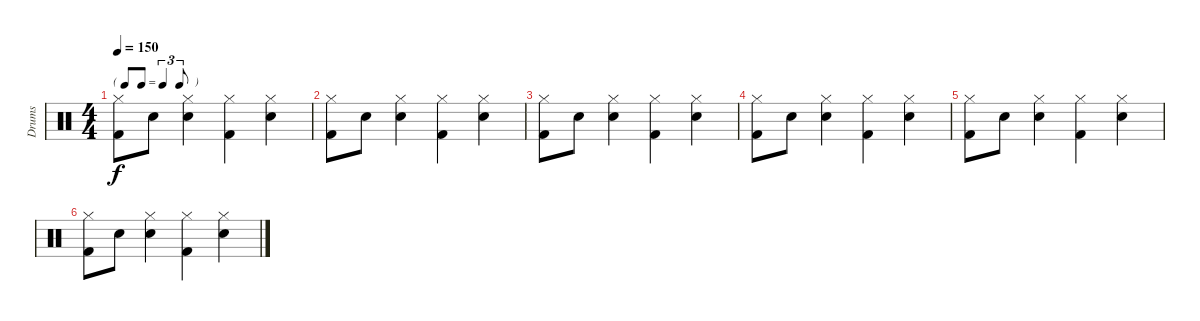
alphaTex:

\track ("Drums" "Drums") {instrument percussion}
\staff {score}
\articulation defaults
\ts (4 4)
\tf triplet8th
\tempo 150
\clef neutral
\ks c
("Hi-Hat (closed)" "Kick (hit) 2").8{dy f} "Snare (hit) 2".8 ("Hi-Hat (closed)" "Snare (hit) 2").4 ("Hi-Hat (closed)" "Kick (hit) 2").4 ("Hi-Hat (closed)" "Snare (hit) 2").4 |
("Hi-Hat (closed)" "Kick (hit) 2").8 "Snare (hit) 2".8 ("Hi-Hat (closed)" "Snare (hit) 2").4 ("Hi-Hat (closed)" "Kick (hit) 2").4 ("Hi-Hat (closed)" "Snare (hit) 2").4 |
("Hi-Hat (closed)" "Kick (hit) 2").8 "Snare (hit) 2".8 ("Hi-Hat (closed)" "Snare (hit) 2").4 ("Hi-Hat (closed)" "Kick (hit) 2").4 ("Hi-Hat (closed)" "Snare (hit) 2").4 |
("Hi-Hat (closed)" "Kick (hit) 2").8 "Snare (hit) 2".8 ("Hi-Hat (closed)" "Snare (hit) 2").4 ("Hi-Hat (closed)" "Kick (hit) 2").4 ("Hi-Hat (closed)" "Snare (hit) 2").4 |
("Hi-Hat (closed)" "Kick (hit) 2").8{volume 0} "Snare (hit) 2".8 ("Hi-Hat (closed)" "Snare (hit) 2").4 ("Hi-Hat (closed)" "Kick (hit) 2").4 ("Hi-Hat (closed)" "Snare (hit) 2").4 |
("Hi-Hat (closed)" "Kick (hit) 2").8 "Snare (hit) 2".8 ("Hi-Hat (closed)" "Snare (hit) 2").4 ("Hi-Hat (closed)" "Kick (hit) 2").4 ("Hi-Hat (closed)" "Snare (hit) 2").4
